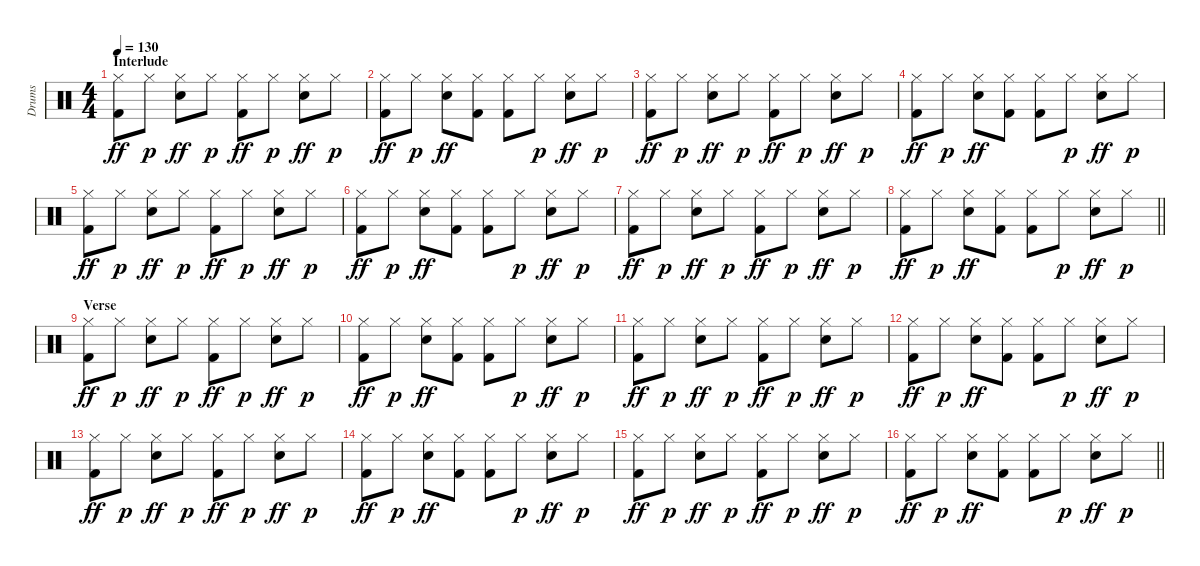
\track ("Drums" "Drums") {instrument percussion}
\staff {score}
\articulation defaults
\ts (4 4)
\section ("" "Interlude")
\tempo 130
\clef neutral
\ks c
("Hi-Hat (closed)" "Kick (hit) 2").8{dy ff} "Hi-Hat (closed)".8{dy p} ("Hi-Hat (closed)" "Electric Snare (hit)").8{dy ff} "Hi-Hat (closed)".8{dy p} ("Hi-Hat (closed)" "Kick (hit) 2").8{dy ff} "Hi-Hat (closed)".8{dy p} ("Hi-Hat (closed)" "Electric Snare (hit)").8{dy ff} "Hi-Hat (closed)".8{dy p} |
("Hi-Hat (closed)" "Kick (hit) 2").8{dy ff} "Hi-Hat (closed)".8{dy p} ("Hi-Hat (closed)" "Electric Snare (hit)").8{dy ff} ("Hi-Hat (closed)" "Kick (hit) 2").8 ("Hi-Hat (closed)" "Kick (hit) 2").8 "Hi-Hat (closed)".8{dy p} ("Hi-Hat (closed)" "Electric Snare (hit)").8{dy ff} "Hi-Hat (closed)".8{dy p} |
("Hi-Hat (closed)" "Kick (hit) 2").8{dy ff} "Hi-Hat (closed)".8{dy p} ("Hi-Hat (closed)" "Electric Snare (hit)").8{dy ff} "Hi-Hat (closed)".8{dy p} ("Hi-Hat (closed)" "Kick (hit) 2").8{dy ff} "Hi-Hat (closed)".8{dy p} ("Hi-Hat (closed)" "Electric Snare (hit)").8{dy ff} "Hi-Hat (closed)".8{dy p} |
("Hi-Hat (closed)" "Kick (hit) 2").8{dy ff} "Hi-Hat (closed)".8{dy p} ("Hi-Hat (closed)" "Electric Snare (hit)").8{dy ff} ("Hi-Hat (closed)" "Kick (hit) 2").8 ("Hi-Hat (closed)" "Kick (hit) 2").8 "Hi-Hat (closed)".8{dy p} ("Hi-Hat (closed)" "Electric Snare (hit)").8{dy ff} "Hi-Hat (closed)".8{dy p} |
("Hi-Hat (closed)" "Kick (hit) 2").8{dy ff} "Hi-Hat (closed)".8{dy p} ("Hi-Hat (closed)" "Electric Snare (hit)").8{dy ff} "Hi-Hat (closed)".8{dy p} ("Hi-Hat (closed)" "Kick (hit) 2").8{dy ff} "Hi-Hat (closed)".8{dy p} ("Hi-Hat (closed)" "Electric Snare (hit)").8{dy ff} "Hi-Hat (closed)".8{dy p} |
("Hi-Hat (closed)" "Kick (hit) 2").8{dy ff} "Hi-Hat (closed)".8{dy p} ("Hi-Hat (closed)" "Electric Snare (hit)").8{dy ff} ("Hi-Hat (closed)" "Kick (hit) 2").8 ("Hi-Hat (closed)" "Kick (hit) 2").8 "Hi-Hat (closed)".8{dy p} ("Hi-Hat (closed)" "Electric Snare (hit)").8{dy ff} "Hi-Hat (closed)".8{dy p} |
("Hi-Hat (closed)" "Kick (hit) 2").8{dy ff} "Hi-Hat (closed)".8{dy p} ("Hi-Hat (closed)" "Electric Snare (hit)").8{dy ff} "Hi-Hat (closed)".8{dy p} ("Hi-Hat (closed)" "Kick (hit) 2").8{dy ff} "Hi-Hat (closed)".8{dy p} ("Hi-Hat (closed)" "Electric Snare (hit)").8{dy ff} "Hi-Hat (closed)".8{dy p} |
\barLineRight lightlight
("Hi-Hat (closed)" "Kick (hit) 2").8{dy ff} "Hi-Hat (closed)".8{dy p} ("Hi-Hat (closed)" "Electric Snare (hit)").8{dy ff} ("Hi-Hat (closed)" "Kick (hit) 2").8 ("Hi-Hat (closed)" "Kick (hit) 2").8 "Hi-Hat (closed)".8{dy p} ("Hi-Hat (closed)" "Electric Snare (hit)").8{dy ff} "Hi-Hat (closed)".8{dy p} |
\section ("" "Verse")
("Hi-Hat (closed)" "Kick (hit) 2").8{dy ff} "Hi-Hat (closed)".8{dy p} ("Hi-Hat (closed)" "Electric Snare (hit)").8{dy ff} "Hi-Hat (closed)".8{dy p} ("Hi-Hat (closed)" "Kick (hit) 2").8{dy ff} "Hi-Hat (closed)".8{dy p} ("Hi-Hat (closed)" "Electric Snare (hit)").8{dy ff} "Hi-Hat (closed)".8{dy p} |
("Hi-Hat (closed)" "Kick (hit) 2").8{dy ff} "Hi-Hat (closed)".8{dy p} ("Hi-Hat (closed)" "Electric Snare (hit)").8{dy ff} ("Hi-Hat (closed)" "Kick (hit) 2").8 ("Hi-Hat (closed)" "Kick (hit) 2").8 "Hi-Hat (closed)".8{dy p} ("Hi-Hat (closed)" "Electric Snare (hit)").8{dy ff} "Hi-Hat (closed)".8{dy p} |
("Hi-Hat (closed)" "Kick (hit) 2").8{dy ff} "Hi-Hat (closed)".8{dy p} ("Hi-Hat (closed)" "Electric Snare (hit)").8{dy ff} "Hi-Hat (closed)".8{dy p} ("Hi-Hat (closed)" "Kick (hit) 2").8{dy ff} "Hi-Hat (closed)".8{dy p} ("Hi-Hat (closed)" "Electric Snare (hit)").8{dy ff} "Hi-Hat (closed)".8{dy p} |
("Hi-Hat (closed)" "Kick (hit) 2").8{dy ff} "Hi-Hat (closed)".8{dy p} ("Hi-Hat (closed)" "Electric Snare (hit)").8{dy ff} ("Hi-Hat (closed)" "Kick (hit) 2").8 ("Hi-Hat (closed)" "Kick (hit) 2").8 "Hi-Hat (closed)".8{dy p} ("Hi-Hat (closed)" "Electric Snare (hit)").8{dy ff} "Hi-Hat (closed)".8{dy p} |
("Hi-Hat (closed)" "Kick (hit) 2").8{dy ff} "Hi-Hat (closed)".8{dy p} ("Hi-Hat (closed)" "Electric Snare (hit)").8{dy ff} "Hi-Hat (closed)".8{dy p} ("Hi-Hat (closed)" "Kick (hit) 2").8{dy ff} "Hi-Hat (closed)".8{dy p} ("Hi-Hat (closed)" "Electric Snare (hit)").8{dy ff} "Hi-Hat (closed)".8{dy p} |
("Hi-Hat (closed)" "Kick (hit) 2").8{dy ff} "Hi-Hat (closed)".8{dy p} ("Hi-Hat (closed)" "Electric Snare (hit)").8{dy ff} ("Hi-Hat (closed)" "Kick (hit) 2").8 ("Hi-Hat (closed)" "Kick (hit) 2").8 "Hi-Hat (closed)".8{dy p} ("Hi-Hat (closed)" "Electric Snare (hit)").8{dy ff} "Hi-Hat (closed)".8{dy p} |
("Hi-Hat (closed)" "Kick (hit) 2").8{dy ff} "Hi-Hat (closed)".8{dy p} ("Hi-Hat (closed)" "Electric Snare (hit)").8{dy ff} "Hi-Hat (closed)".8{dy p} ("Hi-Hat (closed)" "Kick (hit) 2").8{dy ff} "Hi-Hat (closed)".8{dy p} ("Hi-Hat (closed)" "Electric Snare (hit)").8{dy ff} "Hi-Hat (closed)".8{dy p} |
\barLineRight lightlight
("Hi-Hat (closed)" "Kick (hit) 2").8{dy ff} "Hi-Hat (closed)".8{dy p} ("Hi-Hat (closed)" "Electric Snare (hit)").8{dy ff} ("Hi-Hat (closed)" "Kick (hit) 2").8 ("Hi-Hat (closed)" "Kick (hit) 2").8 "Hi-Hat (closed)".8{dy p} ("Hi-Hat (closed)" "Electric Snare (hit)").8{dy ff} "Hi-Hat (closed)".8{dy p}
